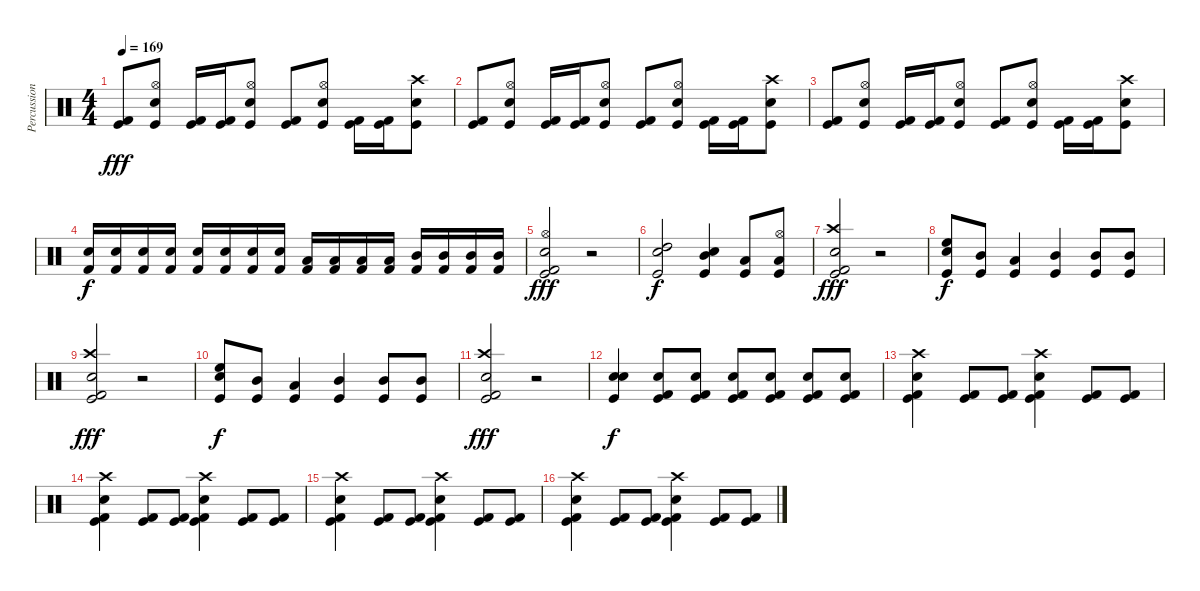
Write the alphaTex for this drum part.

\track ("Percussion" "Percussion") {instrument percussion}
\staff {score}
\articulation defaults
\ts (4 4)
\tempo 169
\clef neutral
\ks c
("Kick (hit) 2" "Kick (hit)").8{dy fff} ("Hi-Hat (open)" "Electric Snare (hit)" "Kick (hit)").8 ("Kick (hit) 2" "Kick (hit)").16 ("Kick (hit) 2" "Kick (hit)").16 ("Hi-Hat (open)" "Electric Snare (hit)" "Kick (hit)").8 ("Kick (hit) 2" "Kick (hit)").8 ("Hi-Hat (open)" "Electric Snare (hit)" "Kick (hit)").8 ("Kick (hit) 2" "Kick (hit)").16 ("Kick (hit) 2" "Kick (hit)").16 ("Crash high (hit)" "Electric Snare (hit)" "Kick (hit)").8 |
("Kick (hit) 2" "Kick (hit)").8 ("Hi-Hat (open)" "Electric Snare (hit)" "Kick (hit)").8 ("Kick (hit) 2" "Kick (hit)").16 ("Kick (hit) 2" "Kick (hit)").16 ("Hi-Hat (open)" "Electric Snare (hit)" "Kick (hit)").8 ("Kick (hit) 2" "Kick (hit)").8 ("Hi-Hat (open)" "Electric Snare (hit)" "Kick (hit)").8 ("Kick (hit) 2" "Kick (hit)").16 ("Kick (hit) 2" "Kick (hit)").16 ("Crash high (hit)" "Electric Snare (hit)" "Kick (hit)").8 |
("Kick (hit) 2" "Kick (hit)").8 ("Hi-Hat (open)" "Electric Snare (hit)" "Kick (hit)").8 ("Kick (hit) 2" "Kick (hit)").16 ("Kick (hit) 2" "Kick (hit)").16 ("Hi-Hat (open)" "Electric Snare (hit)" "Kick (hit)").8 ("Kick (hit) 2" "Kick (hit)").8 ("Hi-Hat (open)" "Electric Snare (hit)" "Kick (hit)").8 ("Kick (hit) 2" "Kick (hit)").16 ("Kick (hit) 2" "Kick (hit)").16 ("Crash high (hit)" "Electric Snare (hit)" "Kick (hit)").8 |
("Electric Snare (hit)" "Kick (hit) 2").16{dy f} ("Electric Snare (hit)" "Kick (hit) 2").16 ("Electric Snare (hit)" "Kick (hit) 2").16 ("Electric Snare (hit)" "Kick (hit) 2").16 ("Snare (hit) 2" "Kick (hit) 2").16 ("Snare (hit) 2" "Kick (hit) 2").16 ("Snare (hit) 2" "Kick (hit) 2").16 ("Snare (hit) 2" "Kick (hit) 2").16 ("Low Tom (hit)" "Kick (hit) 2").16 ("Low Tom (hit)" "Kick (hit) 2").16 ("Low Tom (hit)" "Kick (hit) 2").16 ("Low Tom (hit)" "Kick (hit) 2").16 ("Mid Tom (hit)" "Kick (hit) 2").16 ("Mid Tom (hit)" "Kick (hit) 2").16 ("Mid Tom (hit)" "Kick (hit) 2").16 ("Mid Tom (hit)" "Kick (hit) 2").16 |
("Hi-Hat (open)" "Snare (hit) 2" "Kick (hit) 2" "Kick (hit)").2{dy fff} r.2 |
("High Tom (hit)" "Snare (hit) 2" "Kick (hit)").2{dy f} ("Mid Tom (hit)" "Electric Snare (hit)" "Kick (hit)").4 ("Low Tom (hit)" "Kick (hit)").8 ("Hi-Hat (open)" "Low Tom (hit)" "Kick (hit)").8 |
("Crash high (hit)" "Snare (hit) 2" "Kick (hit) 2" "Kick (hit)").2{dy fff} r.2 |
("High Floor Tom (hit)" "Snare (hit) 2" "Kick (hit)").8{dy f} ("Mid Tom (hit)" "Kick (hit)").8 ("Low Tom (hit)" "Kick (hit)").4 ("Mid Tom (hit)" "Kick (hit)").4 ("Mid Tom (hit)" "Kick (hit)").8 ("Mid Tom (hit)" "Kick (hit)").8 |
("Crash high (hit)" "Snare (hit) 2" "Kick (hit) 2" "Kick (hit)").2{dy fff} r.2 |
("High Floor Tom (hit)" "Snare (hit) 2" "Kick (hit)").8{dy f} ("Mid Tom (hit)" "Kick (hit)").8 ("Low Tom (hit)" "Kick (hit)").4 ("Mid Tom (hit)" "Kick (hit)").4 ("Mid Tom (hit)" "Kick (hit)").8 ("Mid Tom (hit)" "Kick (hit)").8 |
("Crash high (hit)" "Snare (hit) 2" "Kick (hit) 2" "Kick (hit)").2{dy fff} r.2 |
("Electric Snare (hit)" "Snare (hit) 2" "Kick (hit)").4{dy f} ("Electric Snare (hit)" "Kick (hit) 2" "Kick (hit)").8 ("Electric Snare (hit)" "Kick (hit) 2" "Kick (hit)").8 ("Electric Snare (hit)" "Kick (hit) 2" "Kick (hit)").8 ("Electric Snare (hit)" "Kick (hit) 2" "Kick (hit)").8 ("Electric Snare (hit)" "Kick (hit) 2" "Kick (hit)").8 ("Electric Snare (hit)" "Kick (hit) 2" "Kick (hit)").8 |
("Crash high (hit)" "Electric Snare (hit)" "Kick (hit) 2" "Kick (hit)").4 ("Kick (hit) 2" "Kick (hit)").8 ("Kick (hit) 2" "Kick (hit)").8 ("Crash high (hit)" "Electric Snare (hit)" "Kick (hit) 2" "Kick (hit)").4 ("Kick (hit) 2" "Kick (hit)").8 ("Kick (hit) 2" "Kick (hit)").8 |
("Crash high (hit)" "Electric Snare (hit)" "Kick (hit) 2" "Kick (hit)").4 ("Kick (hit) 2" "Kick (hit)").8 ("Kick (hit) 2" "Kick (hit)").8 ("Crash high (hit)" "Electric Snare (hit)" "Kick (hit) 2" "Kick (hit)").4 ("Kick (hit) 2" "Kick (hit)").8 ("Kick (hit) 2" "Kick (hit)").8 |
("Crash high (hit)" "Electric Snare (hit)" "Kick (hit) 2" "Kick (hit)").4 ("Kick (hit) 2" "Kick (hit)").8 ("Kick (hit) 2" "Kick (hit)").8 ("Crash high (hit)" "Electric Snare (hit)" "Kick (hit) 2" "Kick (hit)").4 ("Kick (hit) 2" "Kick (hit)").8 ("Kick (hit) 2" "Kick (hit)").8 |
("Crash high (hit)" "Electric Snare (hit)" "Kick (hit) 2" "Kick (hit)").4 ("Kick (hit) 2" "Kick (hit)").8 ("Kick (hit) 2" "Kick (hit)").8 ("Crash high (hit)" "Electric Snare (hit)" "Kick (hit) 2" "Kick (hit)").4 ("Kick (hit) 2" "Kick (hit)").8 ("Kick (hit) 2" "Kick (hit)").8
